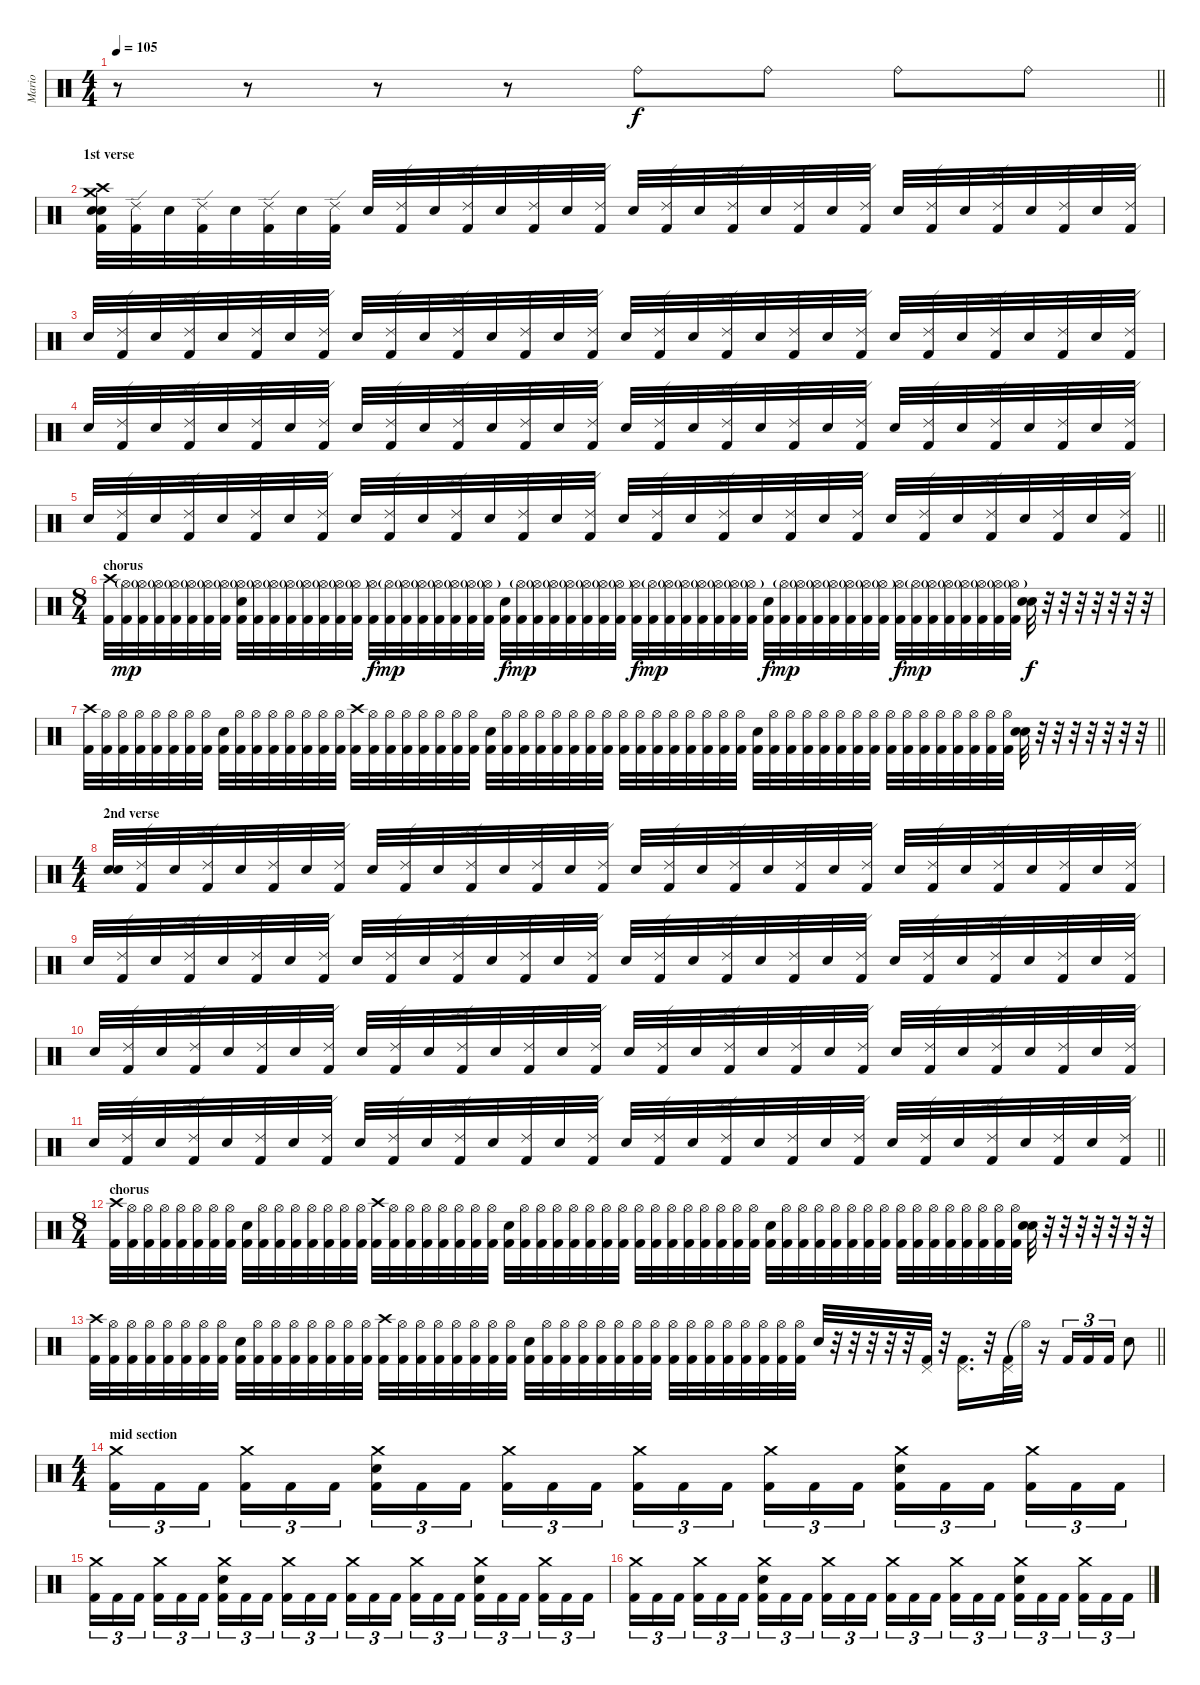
\track ("Mario" "Mario") {instrument percussion}
\staff {score}
\articulation defaults
\ts (4 4)
\tempo 105
\clef neutral
\barLineRight lightlight
\ks c
r.8{dy f} r.8 r.8 r.8 "Ride (bell)".8 "Ride (bell)".8 "Ride (bell)".8 "Ride (bell)".8 |
\section ("" "1st verse")
("Crash medium (hit)" "Crash high (hit)" "Snare (hit) 2" "Snare (hit) 2" "Kick (hit) 2").32 ("Ride (edge) 2" "Kick (hit) 2").32 "Snare (hit) 2".32 ("Ride (edge) 2" "Kick (hit) 2").32 "Snare (hit) 2".32 ("Ride (edge) 2" "Kick (hit) 2").32 "Snare (hit) 2".32 ("Ride (edge) 2" "Kick (hit) 2").32 "Snare (hit) 2".32 ("Ride (edge) 2" "Kick (hit) 2").32 "Snare (hit) 2".32 ("Ride (edge) 2" "Kick (hit) 2").32 "Snare (hit) 2".32 ("Ride (edge) 2" "Kick (hit) 2").32 "Snare (hit) 2".32 ("Ride (edge) 2" "Kick (hit) 2").32 "Snare (hit) 2".32 ("Ride (edge) 2" "Kick (hit) 2").32 "Snare (hit) 2".32 ("Ride (edge) 2" "Kick (hit) 2").32 "Snare (hit) 2".32 ("Ride (edge) 2" "Kick (hit) 2").32 "Snare (hit) 2".32 ("Ride (edge) 2" "Kick (hit) 2").32 "Snare (hit) 2".32 ("Ride (edge) 2" "Kick (hit) 2").32 "Snare (hit) 2".32 ("Ride (edge) 2" "Kick (hit) 2").32 "Snare (hit) 2".32 ("Ride (edge) 2" "Kick (hit) 2").32 "Snare (hit) 2".32 ("Ride (edge) 2" "Kick (hit) 2").32 |
"Snare (hit) 2".32 ("Ride (edge) 2" "Kick (hit) 2").32 "Snare (hit) 2".32 ("Ride (edge) 2" "Kick (hit) 2").32 "Snare (hit) 2".32 ("Ride (edge) 2" "Kick (hit) 2").32 "Snare (hit) 2".32 ("Ride (edge) 2" "Kick (hit) 2").32 "Snare (hit) 2".32 ("Ride (edge) 2" "Kick (hit) 2").32 "Snare (hit) 2".32 ("Ride (edge) 2" "Kick (hit) 2").32 "Snare (hit) 2".32 ("Ride (edge) 2" "Kick (hit) 2").32 "Snare (hit) 2".32 ("Ride (edge) 2" "Kick (hit) 2").32 "Snare (hit) 2".32 ("Ride (edge) 2" "Kick (hit) 2").32 "Snare (hit) 2".32 ("Ride (edge) 2" "Kick (hit) 2").32 "Snare (hit) 2".32 ("Ride (edge) 2" "Kick (hit) 2").32 "Snare (hit) 2".32 ("Ride (edge) 2" "Kick (hit) 2").32 "Snare (hit) 2".32 ("Ride (edge) 2" "Kick (hit) 2").32 "Snare (hit) 2".32 ("Ride (edge) 2" "Kick (hit) 2").32 "Snare (hit) 2".32 ("Ride (edge) 2" "Kick (hit) 2").32 "Snare (hit) 2".32 ("Ride (edge) 2" "Kick (hit) 2").32 |
"Snare (hit) 2".32 ("Ride (edge) 2" "Kick (hit) 2").32 "Snare (hit) 2".32 ("Ride (edge) 2" "Kick (hit) 2").32 "Snare (hit) 2".32 ("Ride (edge) 2" "Kick (hit) 2").32 "Snare (hit) 2".32 ("Ride (edge) 2" "Kick (hit) 2").32 "Snare (hit) 2".32 ("Ride (edge) 2" "Kick (hit) 2").32 "Snare (hit) 2".32 ("Ride (edge) 2" "Kick (hit) 2").32 "Snare (hit) 2".32 ("Ride (edge) 2" "Kick (hit) 2").32 "Snare (hit) 2".32 ("Ride (edge) 2" "Kick (hit) 2").32 "Snare (hit) 2".32 ("Ride (edge) 2" "Kick (hit) 2").32 "Snare (hit) 2".32 ("Ride (edge) 2" "Kick (hit) 2").32 "Snare (hit) 2".32 ("Ride (edge) 2" "Kick (hit) 2").32 "Snare (hit) 2".32 ("Ride (edge) 2" "Kick (hit) 2").32 "Snare (hit) 2".32 ("Ride (edge) 2" "Kick (hit) 2").32 "Snare (hit) 2".32 ("Ride (edge) 2" "Kick (hit) 2").32 "Snare (hit) 2".32 ("Ride (edge) 2" "Kick (hit) 2").32 "Snare (hit) 2".32 ("Ride (edge) 2" "Kick (hit) 2").32 |
\barLineRight lightlight "Snare (hit) 2".32
("Ride (edge) 2" "Kick (hit) 2").32 "Snare (hit) 2".32 ("Ride (edge) 2" "Kick (hit) 2").32 "Snare (hit) 2".32 ("Ride (edge) 2" "Kick (hit) 2").32 "Snare (hit) 2".32 ("Ride (edge) 2" "Kick (hit) 2").32 "Snare (hit) 2".32 ("Ride (edge) 2" "Kick (hit) 2").32 "Snare (hit) 2".32 ("Ride (edge) 2" "Kick (hit) 2").32 "Snare (hit) 2".32 ("Ride (edge) 2" "Kick (hit) 2").32 "Snare (hit) 2".32 ("Ride (edge) 2" "Kick (hit) 2").32 "Snare (hit) 2".32 ("Ride (edge) 2" "Kick (hit) 2").32 "Snare (hit) 2".32 ("Ride (edge) 2" "Kick (hit) 2").32 "Snare (hit) 2".32 ("Ride (edge) 2" "Kick (hit) 2").32 "Snare (hit) 2".32 ("Ride (edge) 2" "Kick (hit) 2").32 "Snare (hit) 2".32 ("Ride (edge) 2" "Kick (hit) 2").32 "Snare (hit) 2".32 ("Ride (edge) 2" "Kick (hit) 2").32 "Snare (hit) 2".32 ("Ride (edge) 2" "Kick (hit) 2").32 "Snare (hit) 2".32 ("Ride (edge) 2" "Kick (hit) 2").32 |
\ts (8 4)
\section ("" "chorus")
("Crash high (hit)" "Kick (hit) 2").32 ("Hi-Hat (open)"{g} "Kick (hit) 2").32{dy mp} ("Hi-Hat (open)"{g} "Kick (hit) 2").32 ("Hi-Hat (open)"{g} "Kick (hit) 2").32 ("Hi-Hat (open)"{g} "Kick (hit) 2").32 ("Hi-Hat (open)"{g} "Kick (hit) 2").32 ("Hi-Hat (open)"{g} "Kick (hit) 2").32 ("Hi-Hat (open)"{g} "Kick (hit) 2").32 ("Hi-Hat (open)"{g} "Snare (hit) 2" "Kick (hit) 2").32 ("Hi-Hat (open)"{g} "Kick (hit) 2").32 ("Hi-Hat (open)"{g} "Kick (hit) 2").32 ("Hi-Hat (open)"{g} "Kick (hit) 2").32 ("Hi-Hat (open)"{g} "Kick (hit) 2").32 ("Hi-Hat (open)"{g} "Kick (hit) 2").32 ("Hi-Hat (open)"{g} "Kick (hit) 2").32 ("Hi-Hat (open)"{g} "Kick (hit) 2").32 ("Hi-Hat (open)" "Kick (hit) 2").32{dy f} ("Hi-Hat (open)"{g} "Kick (hit) 2").32{dy mp} ("Hi-Hat (open)"{g} "Kick (hit) 2").32 ("Hi-Hat (open)"{g} "Kick (hit) 2").32 ("Hi-Hat (open)"{g} "Kick (hit) 2").32 ("Hi-Hat (open)"{g} "Kick (hit) 2").32 ("Hi-Hat (open)"{g} "Kick (hit) 2").32 ("Hi-Hat (open)"{g} "Kick (hit) 2").32 ("Snare (hit) 2" "Kick (hit) 2").32{dy f} ("Hi-Hat (open)"{g} "Kick (hit) 2").32{dy mp} ("Hi-Hat (open)"{g} "Kick (hit) 2").32 ("Hi-Hat (open)"{g} "Kick (hit) 2").32 ("Hi-Hat (open)"{g} "Kick (hit) 2").32 ("Hi-Hat (open)"{g} "Kick (hit) 2").32 ("Hi-Hat (open)"{g} "Kick (hit) 2").32 ("Hi-Hat (open)"{g} "Kick (hit) 2").32 ("Hi-Hat (open)" "Kick (hit) 2").32{dy f} ("Hi-Hat (open)"{g} "Kick (hit) 2").32{dy mp} ("Hi-Hat (open)"{g} "Kick (hit) 2").32 ("Hi-Hat (open)"{g} "Kick (hit) 2").32 ("Hi-Hat (open)"{g} "Kick (hit) 2").32 ("Hi-Hat (open)"{g} "Kick (hit) 2").32 ("Hi-Hat (open)"{g} "Kick (hit) 2").32 ("Hi-Hat (open)"{g} "Kick (hit) 2").32 ("Snare (hit) 2" "Kick (hit) 2").32{dy f} ("Hi-Hat (open)"{g} "Kick (hit) 2").32{dy mp} ("Hi-Hat (open)"{g} "Kick (hit) 2").32 ("Hi-Hat (open)"{g} "Kick (hit) 2").32 ("Hi-Hat (open)"{g} "Kick (hit) 2").32 ("Hi-Hat (open)"{g} "Kick (hit) 2").32 ("Hi-Hat (open)"{g} "Kick (hit) 2").32 ("Hi-Hat (open)"{g} "Kick (hit) 2").32 ("Hi-Hat (open)" "Kick (hit) 2").32{dy f} ("Hi-Hat (open)"{g} "Kick (hit) 2").32{dy mp} ("Hi-Hat (open)"{g} "Kick (hit) 2").32 ("Hi-Hat (open)"{g} "Kick (hit) 2").32 ("Hi-Hat (open)"{g} "Kick (hit) 2").32 ("Hi-Hat (open)"{g} "Kick (hit) 2").32 ("Hi-Hat (open)"{g} "Kick (hit) 2").32 ("Hi-Hat (open)"{g} "Kick (hit) 2").32 ("Snare (hit) 2" "Snare (hit) 2").32{dy f} r.32 r.32 r.32 r.32 r.32 r.32 r.32 |
\barLineRight lightlight
("Crash high (hit)" "Kick (hit) 2").32 ("Hi-Hat (open)" "Kick (hit) 2").32 ("Hi-Hat (open)" "Kick (hit) 2").32 ("Hi-Hat (open)" "Kick (hit) 2").32 ("Hi-Hat (open)" "Kick (hit) 2").32 ("Hi-Hat (open)" "Kick (hit) 2").32 ("Hi-Hat (open)" "Kick (hit) 2").32 ("Hi-Hat (open)" "Kick (hit) 2").32 ("Snare (hit) 2" "Kick (hit) 2").32 ("Hi-Hat (open)" "Kick (hit) 2").32 ("Hi-Hat (open)" "Kick (hit) 2").32 ("Hi-Hat (open)" "Kick (hit) 2").32 ("Hi-Hat (open)" "Kick (hit) 2").32 ("Hi-Hat (open)" "Kick (hit) 2").32 ("Hi-Hat (open)" "Kick (hit) 2").32 ("Hi-Hat (open)" "Kick (hit) 2").32 ("Crash high (hit)" "Kick (hit) 2").32 ("Hi-Hat (open)" "Kick (hit) 2").32 ("Hi-Hat (open)" "Kick (hit) 2").32 ("Hi-Hat (open)" "Kick (hit) 2").32 ("Hi-Hat (open)" "Kick (hit) 2").32 ("Hi-Hat (open)" "Kick (hit) 2").32 ("Hi-Hat (open)" "Kick (hit) 2").32 ("Hi-Hat (open)" "Kick (hit) 2").32 ("Snare (hit) 2" "Kick (hit) 2").32 ("Hi-Hat (open)" "Kick (hit) 2").32 ("Hi-Hat (open)" "Kick (hit) 2").32 ("Hi-Hat (open)" "Kick (hit) 2").32 ("Hi-Hat (open)" "Kick (hit) 2").32 ("Hi-Hat (open)" "Kick (hit) 2").32 ("Hi-Hat (open)" "Kick (hit) 2").32 ("Hi-Hat (open)" "Kick (hit) 2").32 ("Hi-Hat (open)" "Kick (hit) 2").32 ("Hi-Hat (open)" "Kick (hit) 2").32 ("Hi-Hat (open)" "Kick (hit) 2").32 ("Hi-Hat (open)" "Kick (hit) 2").32 ("Hi-Hat (open)" "Kick (hit) 2").32 ("Hi-Hat (open)" "Kick (hit) 2").32 ("Hi-Hat (open)" "Kick (hit) 2").32 ("Hi-Hat (open)" "Kick (hit) 2").32 ("Snare (hit) 2" "Kick (hit) 2").32 ("Hi-Hat (open)" "Kick (hit) 2").32 ("Hi-Hat (open)" "Kick (hit) 2").32 ("Hi-Hat (open)" "Kick (hit) 2").32 ("Hi-Hat (open)" "Kick (hit) 2").32 ("Hi-Hat (open)" "Kick (hit) 2").32 ("Hi-Hat (open)" "Kick (hit) 2").32 ("Hi-Hat (open)" "Kick (hit) 2").32 ("Hi-Hat (open)" "Kick (hit) 2").32 ("Hi-Hat (open)" "Kick (hit) 2").32 ("Hi-Hat (open)" "Kick (hit) 2").32 ("Hi-Hat (open)" "Kick (hit) 2").32 ("Hi-Hat (open)" "Kick (hit) 2").32 ("Hi-Hat (open)" "Kick (hit) 2").32 ("Hi-Hat (open)" "Kick (hit) 2").32 ("Hi-Hat (open)" "Kick (hit) 2").32 ("Snare (hit) 2" "Snare (hit) 2").32 r.32 r.32 r.32 r.32 r.32 r.32 r.32 |
\ts (4 4)
\section ("" "2nd verse")
("Snare (hit) 2" "Snare (hit) 2").32 ("Ride (edge) 2" "Kick (hit) 2").32 "Snare (hit) 2".32 ("Ride (edge) 2" "Kick (hit) 2").32 "Snare (hit) 2".32 ("Ride (edge) 2" "Kick (hit) 2").32 "Snare (hit) 2".32 ("Ride (edge) 2" "Kick (hit) 2").32 "Snare (hit) 2".32 ("Ride (edge) 2" "Kick (hit) 2").32 "Snare (hit) 2".32 ("Ride (edge) 2" "Kick (hit) 2").32 "Snare (hit) 2".32 ("Ride (edge) 2" "Kick (hit) 2").32 "Snare (hit) 2".32 ("Ride (edge) 2" "Kick (hit) 2").32 "Snare (hit) 2".32 ("Ride (edge) 2" "Kick (hit) 2").32 "Snare (hit) 2".32 ("Ride (edge) 2" "Kick (hit) 2").32 "Snare (hit) 2".32 ("Ride (edge) 2" "Kick (hit) 2").32 "Snare (hit) 2".32 ("Ride (edge) 2" "Kick (hit) 2").32 "Snare (hit) 2".32 ("Ride (edge) 2" "Kick (hit) 2").32 "Snare (hit) 2".32 ("Ride (edge) 2" "Kick (hit) 2").32 "Snare (hit) 2".32 ("Ride (edge) 2" "Kick (hit) 2").32 "Snare (hit) 2".32 ("Ride (edge) 2" "Kick (hit) 2").32 |
"Snare (hit) 2".32 ("Ride (edge) 2" "Kick (hit) 2").32 "Snare (hit) 2".32 ("Ride (edge) 2" "Kick (hit) 2").32 "Snare (hit) 2".32 ("Ride (edge) 2" "Kick (hit) 2").32 "Snare (hit) 2".32 ("Ride (edge) 2" "Kick (hit) 2").32 "Snare (hit) 2".32 ("Ride (edge) 2" "Kick (hit) 2").32 "Snare (hit) 2".32 ("Ride (edge) 2" "Kick (hit) 2").32 "Snare (hit) 2".32 ("Ride (edge) 2" "Kick (hit) 2").32 "Snare (hit) 2".32 ("Ride (edge) 2" "Kick (hit) 2").32 "Snare (hit) 2".32 ("Ride (edge) 2" "Kick (hit) 2").32 "Snare (hit) 2".32 ("Ride (edge) 2" "Kick (hit) 2").32 "Snare (hit) 2".32 ("Ride (edge) 2" "Kick (hit) 2").32 "Snare (hit) 2".32 ("Ride (edge) 2" "Kick (hit) 2").32 "Snare (hit) 2".32 ("Ride (edge) 2" "Kick (hit) 2").32 "Snare (hit) 2".32 ("Ride (edge) 2" "Kick (hit) 2").32 "Snare (hit) 2".32 ("Ride (edge) 2" "Kick (hit) 2").32 "Snare (hit) 2".32 ("Ride (edge) 2" "Kick (hit) 2").32 |
"Snare (hit) 2".32 ("Ride (edge) 2" "Kick (hit) 2").32 "Snare (hit) 2".32 ("Ride (edge) 2" "Kick (hit) 2").32 "Snare (hit) 2".32 ("Ride (edge) 2" "Kick (hit) 2").32 "Snare (hit) 2".32 ("Ride (edge) 2" "Kick (hit) 2").32 "Snare (hit) 2".32 ("Ride (edge) 2" "Kick (hit) 2").32 "Snare (hit) 2".32 ("Ride (edge) 2" "Kick (hit) 2").32 "Snare (hit) 2".32 ("Ride (edge) 2" "Kick (hit) 2").32 "Snare (hit) 2".32 ("Ride (edge) 2" "Kick (hit) 2").32 "Snare (hit) 2".32 ("Ride (edge) 2" "Kick (hit) 2").32 "Snare (hit) 2".32 ("Ride (edge) 2" "Kick (hit) 2").32 "Snare (hit) 2".32 ("Ride (edge) 2" "Kick (hit) 2").32 "Snare (hit) 2".32 ("Ride (edge) 2" "Kick (hit) 2").32 "Snare (hit) 2".32 ("Ride (edge) 2" "Kick (hit) 2").32 "Snare (hit) 2".32 ("Ride (edge) 2" "Kick (hit) 2").32 "Snare (hit) 2".32 ("Ride (edge) 2" "Kick (hit) 2").32 "Snare (hit) 2".32 ("Ride (edge) 2" "Kick (hit) 2").32 |
\barLineRight lightlight "Snare (hit) 2".32
("Ride (edge) 2" "Kick (hit) 2").32 "Snare (hit) 2".32 ("Ride (edge) 2" "Kick (hit) 2").32 "Snare (hit) 2".32 ("Ride (edge) 2" "Kick (hit) 2").32 "Snare (hit) 2".32 ("Ride (edge) 2" "Kick (hit) 2").32 "Snare (hit) 2".32 ("Ride (edge) 2" "Kick (hit) 2").32 "Snare (hit) 2".32 ("Ride (edge) 2" "Kick (hit) 2").32 "Snare (hit) 2".32 ("Ride (edge) 2" "Kick (hit) 2").32 "Snare (hit) 2".32 ("Ride (edge) 2" "Kick (hit) 2").32 "Snare (hit) 2".32 ("Ride (edge) 2" "Kick (hit) 2").32 "Snare (hit) 2".32 ("Ride (edge) 2" "Kick (hit) 2").32 "Snare (hit) 2".32 ("Ride (edge) 2" "Kick (hit) 2").32 "Snare (hit) 2".32 ("Ride (edge) 2" "Kick (hit) 2").32 "Snare (hit) 2".32 ("Ride (edge) 2" "Kick (hit) 2").32 "Snare (hit) 2".32 ("Ride (edge) 2" "Kick (hit) 2").32 "Snare (hit) 2".32 ("Ride (edge) 2" "Kick (hit) 2").32 "Snare (hit) 2".32 ("Ride (edge) 2" "Kick (hit) 2").32 |
\ts (8 4)
\section ("" "chorus")
("Crash high (hit)" "Kick (hit) 2").32 ("Hi-Hat (open)" "Kick (hit) 2").32 ("Hi-Hat (open)" "Kick (hit) 2").32 ("Hi-Hat (open)" "Kick (hit) 2").32 ("Hi-Hat (open)" "Kick (hit) 2").32 ("Hi-Hat (open)" "Kick (hit) 2").32 ("Hi-Hat (open)" "Kick (hit) 2").32 ("Hi-Hat (open)" "Kick (hit) 2").32 ("Snare (hit) 2" "Kick (hit) 2").32 ("Hi-Hat (open)" "Kick (hit) 2").32 ("Hi-Hat (open)" "Kick (hit) 2").32 ("Hi-Hat (open)" "Kick (hit) 2").32 ("Hi-Hat (open)" "Kick (hit) 2").32 ("Hi-Hat (open)" "Kick (hit) 2").32 ("Hi-Hat (open)" "Kick (hit) 2").32 ("Hi-Hat (open)" "Kick (hit) 2").32 ("Crash high (hit)" "Kick (hit) 2").32 ("Hi-Hat (open)" "Kick (hit) 2").32 ("Hi-Hat (open)" "Kick (hit) 2").32 ("Hi-Hat (open)" "Kick (hit) 2").32 ("Hi-Hat (open)" "Kick (hit) 2").32 ("Hi-Hat (open)" "Kick (hit) 2").32 ("Hi-Hat (open)" "Kick (hit) 2").32 ("Hi-Hat (open)" "Kick (hit) 2").32 ("Snare (hit) 2" "Kick (hit) 2").32 ("Hi-Hat (open)" "Kick (hit) 2").32 ("Hi-Hat (open)" "Kick (hit) 2").32 ("Hi-Hat (open)" "Kick (hit) 2").32 ("Hi-Hat (open)" "Kick (hit) 2").32 ("Hi-Hat (open)" "Kick (hit) 2").32 ("Hi-Hat (open)" "Kick (hit) 2").32 ("Hi-Hat (open)" "Kick (hit) 2").32 ("Hi-Hat (open)" "Kick (hit) 2").32 ("Hi-Hat (open)" "Kick (hit) 2").32 ("Hi-Hat (open)" "Kick (hit) 2").32 ("Hi-Hat (open)" "Kick (hit) 2").32 ("Hi-Hat (open)" "Kick (hit) 2").32 ("Hi-Hat (open)" "Kick (hit) 2").32 ("Hi-Hat (open)" "Kick (hit) 2").32 ("Hi-Hat (open)" "Kick (hit) 2").32 ("Snare (hit) 2" "Kick (hit) 2").32 ("Hi-Hat (open)" "Kick (hit) 2").32 ("Hi-Hat (open)" "Kick (hit) 2").32 ("Hi-Hat (open)" "Kick (hit) 2").32 ("Hi-Hat (open)" "Kick (hit) 2").32 ("Hi-Hat (open)" "Kick (hit) 2").32 ("Hi-Hat (open)" "Kick (hit) 2").32 ("Hi-Hat (open)" "Kick (hit) 2").32 ("Hi-Hat (open)" "Kick (hit) 2").32 ("Hi-Hat (open)" "Kick (hit) 2").32 ("Hi-Hat (open)" "Kick (hit) 2").32 ("Hi-Hat (open)" "Kick (hit) 2").32 ("Hi-Hat (open)" "Kick (hit) 2").32 ("Hi-Hat (open)" "Kick (hit) 2").32 ("Hi-Hat (open)" "Kick (hit) 2").32 ("Hi-Hat (open)" "Kick (hit) 2").32 ("Snare (hit) 2" "Snare (hit) 2").32 r.32 r.32 r.32 r.32 r.32 r.32 r.32 |
\barLineRight lightlight
("Crash high (hit)" "Kick (hit) 2").32 ("Hi-Hat (open)" "Kick (hit) 2").32 ("Hi-Hat (open)" "Kick (hit) 2").32 ("Hi-Hat (open)" "Kick (hit) 2").32 ("Hi-Hat (open)" "Kick (hit) 2").32 ("Hi-Hat (open)" "Kick (hit) 2").32 ("Hi-Hat (open)" "Kick (hit) 2").32 ("Hi-Hat (open)" "Kick (hit) 2").32 ("Snare (hit) 2" "Kick (hit) 2").32 ("Hi-Hat (open)" "Kick (hit) 2").32 ("Hi-Hat (open)" "Kick (hit) 2").32 ("Hi-Hat (open)" "Kick (hit) 2").32 ("Hi-Hat (open)" "Kick (hit) 2").32 ("Hi-Hat (open)" "Kick (hit) 2").32 ("Hi-Hat (open)" "Kick (hit) 2").32 ("Hi-Hat (open)" "Kick (hit) 2").32 ("Crash high (hit)" "Kick (hit) 2").32 ("Hi-Hat (open)" "Kick (hit) 2").32 ("Hi-Hat (open)" "Kick (hit) 2").32 ("Hi-Hat (open)" "Kick (hit) 2").32 ("Hi-Hat (open)" "Kick (hit) 2").32 ("Hi-Hat (open)" "Kick (hit) 2").32 ("Hi-Hat (open)" "Kick (hit) 2").32 ("Hi-Hat (open)" "Kick (hit) 2").32 ("Snare (hit) 2" "Kick (hit) 2").32 ("Hi-Hat (open)" "Kick (hit) 2").32 ("Hi-Hat (open)" "Kick (hit) 2").32 ("Hi-Hat (open)" "Kick (hit) 2").32 ("Hi-Hat (open)" "Kick (hit) 2").32 ("Hi-Hat (open)" "Kick (hit) 2").32 ("Hi-Hat (open)" "Kick (hit) 2").32 ("Hi-Hat (open)" "Kick (hit) 2").32 ("Hi-Hat (open)" "Kick (hit) 2").32 ("Hi-Hat (open)" "Kick (hit) 2").32 ("Hi-Hat (open)" "Kick (hit) 2").32 ("Hi-Hat (open)" "Kick (hit) 2").32 ("Hi-Hat (open)" "Kick (hit) 2").32 ("Hi-Hat (open)" "Kick (hit) 2").32 ("Hi-Hat (open)" "Kick (hit) 2").32 ("Hi-Hat (open)" "Kick (hit) 2").32 "Snare (hit) 2".32 r.32 r.32 r.32 r.32 r.32 ("Pedal Hi-Hat (hit)" "Kick (hit) 2").32 r.32 ("Pedal Hi-Hat (hit)" "Kick (hit) 2").16{d} r.32 ("Pedal Hi-Hat (hit)" "Kick (hit) 2").32 "Hi-Hat (open)"{t}.32 r.16 "Kick (hit) 2".16{tu (3 2)} "Kick (hit) 2".16{tu (3 2)} "Kick (hit) 2".16{tu (3 2)} "Snare (hit) 2".8 |
\ts (4 4)
\section ("" "mid section")
("Crash medium (hit)" "Kick (hit) 2").16{tu (3 2)} "Kick (hit) 2".16{tu (3 2)} "Kick (hit) 2".16{tu (3 2) beam splitsecondary} ("Crash medium (hit)" "Kick (hit) 2").16{tu (3 2)} "Kick (hit) 2".16{tu (3 2)} "Kick (hit) 2".16{tu (3 2)} ("Crash medium (hit)" "Snare (hit) 2" "Kick (hit) 2").16{tu (3 2)} "Kick (hit) 2".16{tu (3 2)} "Kick (hit) 2".16{tu (3 2) beam splitsecondary} ("Crash medium (hit)" "Kick (hit) 2").16{tu (3 2)} "Kick (hit) 2".16{tu (3 2)} "Kick (hit) 2".16{tu (3 2)} ("Crash medium (hit)" "Kick (hit) 2").16{tu (3 2)} "Kick (hit) 2".16{tu (3 2)} "Kick (hit) 2".16{tu (3 2) beam splitsecondary} ("Crash medium (hit)" "Kick (hit) 2").16{tu (3 2)} "Kick (hit) 2".16{tu (3 2)} "Kick (hit) 2".16{tu (3 2)} ("Crash medium (hit)" "Snare (hit) 2" "Kick (hit) 2").16{tu (3 2)} "Kick (hit) 2".16{tu (3 2)} "Kick (hit) 2".16{tu (3 2) beam splitsecondary} ("Crash medium (hit)" "Kick (hit) 2").16{tu (3 2)} "Kick (hit) 2".16{tu (3 2)} "Kick (hit) 2".16{tu (3 2)} |
("Crash medium (hit)" "Kick (hit) 2").16{tu (3 2)} "Kick (hit) 2".16{tu (3 2)} "Kick (hit) 2".16{tu (3 2) beam splitsecondary} ("Crash medium (hit)" "Kick (hit) 2").16{tu (3 2)} "Kick (hit) 2".16{tu (3 2)} "Kick (hit) 2".16{tu (3 2)} ("Crash medium (hit)" "Snare (hit) 2" "Kick (hit) 2").16{tu (3 2)} "Kick (hit) 2".16{tu (3 2)} "Kick (hit) 2".16{tu (3 2) beam splitsecondary} ("Crash medium (hit)" "Kick (hit) 2").16{tu (3 2)} "Kick (hit) 2".16{tu (3 2)} "Kick (hit) 2".16{tu (3 2)} ("Crash medium (hit)" "Kick (hit) 2").16{tu (3 2)} "Kick (hit) 2".16{tu (3 2)} "Kick (hit) 2".16{tu (3 2) beam splitsecondary} ("Crash medium (hit)" "Kick (hit) 2").16{tu (3 2)} "Kick (hit) 2".16{tu (3 2)} "Kick (hit) 2".16{tu (3 2)} ("Crash medium (hit)" "Snare (hit) 2" "Kick (hit) 2").16{tu (3 2)} "Kick (hit) 2".16{tu (3 2)} "Kick (hit) 2".16{tu (3 2) beam splitsecondary} ("Crash medium (hit)" "Kick (hit) 2").16{tu (3 2)} "Kick (hit) 2".16{tu (3 2)} "Kick (hit) 2".16{tu (3 2)} |
("Crash medium (hit)" "Kick (hit) 2").16{tu (3 2)} "Kick (hit) 2".16{tu (3 2)} "Kick (hit) 2".16{tu (3 2) beam splitsecondary} ("Crash medium (hit)" "Kick (hit) 2").16{tu (3 2)} "Kick (hit) 2".16{tu (3 2)} "Kick (hit) 2".16{tu (3 2)} ("Crash medium (hit)" "Snare (hit) 2" "Kick (hit) 2").16{tu (3 2)} "Kick (hit) 2".16{tu (3 2)} "Kick (hit) 2".16{tu (3 2) beam splitsecondary} ("Crash medium (hit)" "Kick (hit) 2").16{tu (3 2)} "Kick (hit) 2".16{tu (3 2)} "Kick (hit) 2".16{tu (3 2)} ("Crash medium (hit)" "Kick (hit) 2").16{tu (3 2)} "Kick (hit) 2".16{tu (3 2)} "Kick (hit) 2".16{tu (3 2) beam splitsecondary} ("Crash medium (hit)" "Kick (hit) 2").16{tu (3 2)} "Kick (hit) 2".16{tu (3 2)} "Kick (hit) 2".16{tu (3 2)} ("Crash medium (hit)" "Snare (hit) 2" "Kick (hit) 2").16{tu (3 2)} "Kick (hit) 2".16{tu (3 2)} "Kick (hit) 2".16{tu (3 2) beam splitsecondary} ("Crash medium (hit)" "Kick (hit) 2").16{tu (3 2)} "Kick (hit) 2".16{tu (3 2)} "Kick (hit) 2".16{tu (3 2)}
